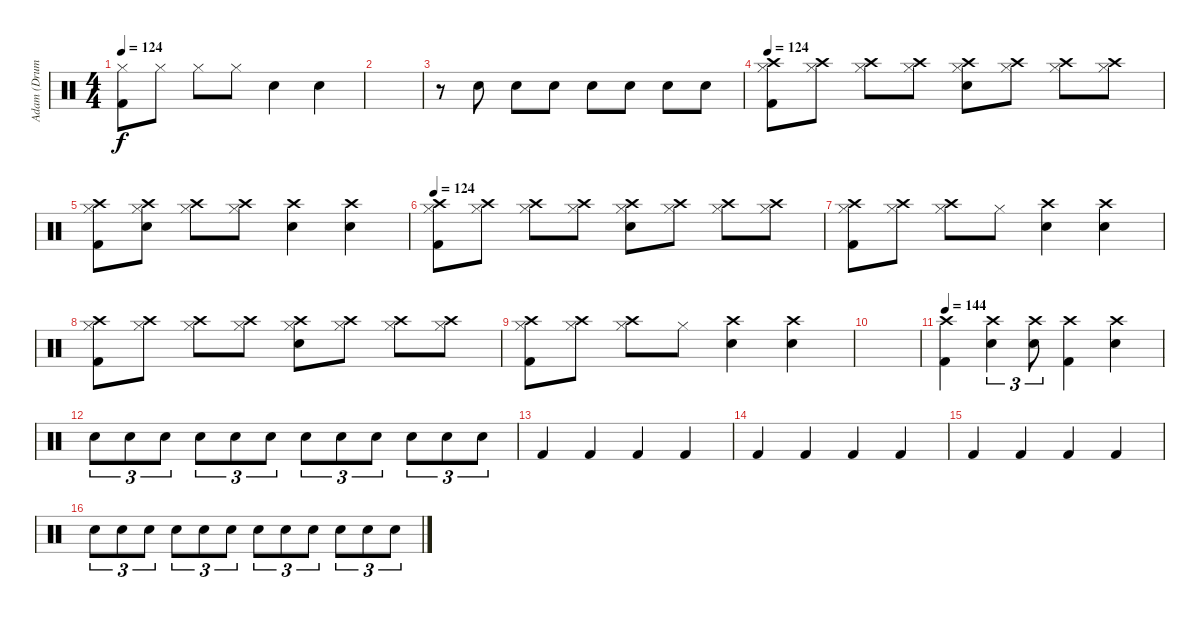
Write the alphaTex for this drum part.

\track ("Adam (Drums)" "Adam (Drum") {instrument percussion}
\staff {score}
\articulation defaults
\ts (4 4)
\tempo 124
\clef neutral
\ks c
("Hi-Hat (closed)" "Kick (hit) 2").8{dy f} "Hi-Hat (closed)".8 "Hi-Hat (closed)".8 "Hi-Hat (closed)".8 "Electric Snare (hit)".4 "Electric Snare (hit)".4 |
|
r.8 "Electric Snare (hit)".8 "Electric Snare (hit)".8 "Electric Snare (hit)".8 "Electric Snare (hit)".8 "Electric Snare (hit)".8 "Electric Snare (hit)".8 "Electric Snare (hit)".8 |
\tempo 124
("Crash high (hit)" "Hi-Hat (closed)" "Kick (hit) 2").8 ("Crash high (hit)" "Hi-Hat (closed)").8 ("Crash high (hit)" "Hi-Hat (closed)").8 ("Crash high (hit)" "Hi-Hat (closed)").8 ("Crash high (hit)" "Hi-Hat (closed)" "Electric Snare (hit)").8 ("Crash high (hit)" "Hi-Hat (closed)").8 ("Crash high (hit)" "Hi-Hat (closed)").8 ("Crash high (hit)" "Hi-Hat (closed)").8 |
("Crash high (hit)" "Hi-Hat (closed)" "Kick (hit) 2").8 ("Snare (hit)" "Crash high (hit)" "Hi-Hat (closed)").8 ("Crash high (hit)" "Hi-Hat (closed)").8 ("Crash high (hit)" "Hi-Hat (closed)").8 ("Crash high (hit)" "Electric Snare (hit)").4 ("Crash high (hit)" "Electric Snare (hit)").4 |
\tempo 124
("Crash high (hit)" "Hi-Hat (closed)" "Kick (hit) 2").8 ("Crash high (hit)" "Hi-Hat (closed)").8 ("Crash high (hit)" "Hi-Hat (closed)").8 ("Crash high (hit)" "Hi-Hat (closed)").8 ("Crash high (hit)" "Hi-Hat (closed)" "Electric Snare (hit)").8 ("Crash high (hit)" "Hi-Hat (closed)").8 ("Crash high (hit)" "Hi-Hat (closed)").8 ("Crash high (hit)" "Hi-Hat (closed)").8 |
("Crash high (hit)" "Hi-Hat (closed)" "Kick (hit) 2").8 ("Crash high (hit)" "Hi-Hat (closed)").8 ("Crash high (hit)" "Hi-Hat (closed)").8 "Hi-Hat (closed)".8 ("Crash high (hit)" "Electric Snare (hit)").4 ("Crash high (hit)" "Electric Snare (hit)").4 |
("Crash high (hit)" "Hi-Hat (closed)" "Kick (hit) 2").8 ("Crash high (hit)" "Hi-Hat (closed)").8 ("Crash high (hit)" "Hi-Hat (closed)").8 ("Crash high (hit)" "Hi-Hat (closed)").8 ("Crash high (hit)" "Hi-Hat (closed)" "Electric Snare (hit)").8 ("Crash high (hit)" "Hi-Hat (closed)").8 ("Crash high (hit)" "Hi-Hat (closed)").8 ("Crash high (hit)" "Hi-Hat (closed)").8 |
("Crash high (hit)" "Hi-Hat (closed)" "Kick (hit) 2").8 ("Crash high (hit)" "Hi-Hat (closed)").8 ("Crash high (hit)" "Hi-Hat (closed)").8 "Hi-Hat (closed)".8 ("Crash high (hit)" "Electric Snare (hit)").4 ("Crash high (hit)" "Electric Snare (hit)").4 |
|
\tempo 144
("Kick (hit) 2" "Crash high (hit)").4 ("Electric Snare (hit)" "Crash high (hit)").4{tu (3 2)} ("Electric Snare (hit)" "Crash high (hit)").8{tu (3 2)} ("Kick (hit) 2" "Crash high (hit)").4 ("Electric Snare (hit)" "Crash high (hit)").4 |
"Electric Snare (hit)".8{tu (3 2)} "Electric Snare (hit)".8{tu (3 2)} "Electric Snare (hit)".8{tu (3 2)} "Electric Snare (hit)".8{tu (3 2)} "Electric Snare (hit)".8{tu (3 2)} "Electric Snare (hit)".8{tu (3 2)} "Electric Snare (hit)".8{tu (3 2)} "Electric Snare (hit)".8{tu (3 2)} "Electric Snare (hit)".8{tu (3 2)} "Electric Snare (hit)".8{tu (3 2)} "Electric Snare (hit)".8{tu (3 2)} "Electric Snare (hit)".8{tu (3 2)} |
"Kick (hit) 2".4 "Kick (hit) 2".4 "Kick (hit) 2".4 "Kick (hit) 2".4 |
"Kick (hit) 2".4 "Kick (hit) 2".4 "Kick (hit) 2".4 "Kick (hit) 2".4 |
"Kick (hit) 2".4 "Kick (hit) 2".4 "Kick (hit) 2".4 "Kick (hit) 2".4 |
"Electric Snare (hit)".8{tu (3 2)} "Electric Snare (hit)".8{tu (3 2)} "Electric Snare (hit)".8{tu (3 2)} "Electric Snare (hit)".8{tu (3 2)} "Electric Snare (hit)".8{tu (3 2)} "Electric Snare (hit)".8{tu (3 2)} "Electric Snare (hit)".8{tu (3 2)} "Electric Snare (hit)".8{tu (3 2)} "Electric Snare (hit)".8{tu (3 2)} "Electric Snare (hit)".8{tu (3 2)} "Electric Snare (hit)".8{tu (3 2)} "Electric Snare (hit)".8{tu (3 2)}
